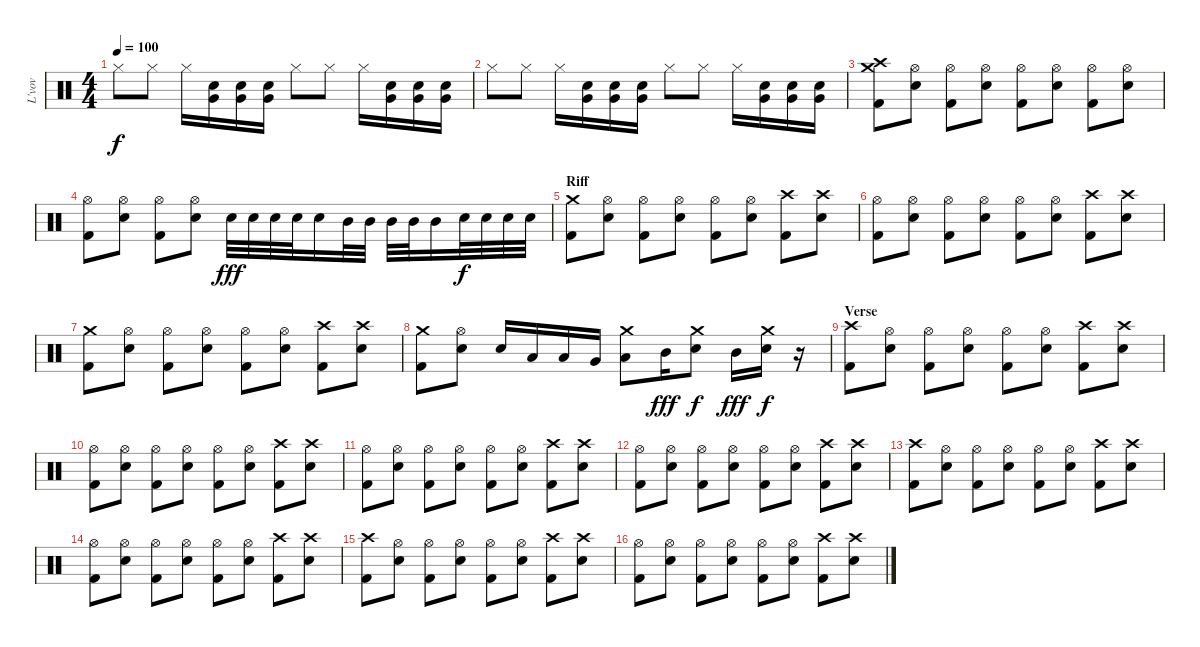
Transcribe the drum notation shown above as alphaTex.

\track ("L'vov" "L'vov") {instrument percussion}
\staff {score}
\articulation defaults
\ts (4 4)
\tempo 100
\clef neutral
\ks c "Hi-Hat (closed)".8{dy f} "Hi-Hat (closed)".8 "Hi-Hat (closed)".16
("Snare (hit) 2" "Very Low Tom (hit)").16 ("Snare (hit) 2" "Very Low Tom (hit)").16 ("Snare (hit) 2" "Very Low Tom (hit)").16 "Hi-Hat (closed)".8 "Hi-Hat (closed)".8 "Hi-Hat (closed)".16 ("Snare (hit) 2" "Very Low Tom (hit)").16 ("Snare (hit) 2" "Very Low Tom (hit)").16 ("Snare (hit) 2" "Very Low Tom (hit)").16 |
"Hi-Hat (closed)".8 "Hi-Hat (closed)".8 "Hi-Hat (closed)".16 ("Snare (hit) 2" "Very Low Tom (hit)").16 ("Snare (hit) 2" "Very Low Tom (hit)").16 ("Snare (hit) 2" "Very Low Tom (hit)").16 "Hi-Hat (closed)".8 "Hi-Hat (closed)".8 "Hi-Hat (closed)".16 ("Snare (hit) 2" "Very Low Tom (hit)").16 ("Snare (hit) 2" "Very Low Tom (hit)").16 ("Snare (hit) 2" "Very Low Tom (hit)").16 |
("Kick (hit) 2" "Crash high (hit)" "Crash medium (hit)").8 ("Snare (hit) 2" "Hi-Hat (open)").8 ("Kick (hit) 2" "Hi-Hat (open)").8 ("Snare (hit) 2" "Hi-Hat (open)").8 ("Kick (hit) 2" "Hi-Hat (open)").8 ("Snare (hit) 2" "Hi-Hat (open)").8 ("Kick (hit) 2" "Hi-Hat (open)").8 ("Snare (hit) 2" "Hi-Hat (open)").8 |
("Kick (hit) 2" "Hi-Hat (open)").8 ("Snare (hit) 2" "Hi-Hat (open)").8 ("Kick (hit) 2" "Hi-Hat (open)").8 ("Snare (hit) 2" "Hi-Hat (open)").8 "Electric Snare (hit)".32{dy fff} "Electric Snare (hit)".32 "Electric Snare (hit)".32 "Electric Snare (hit)".32 "Electric Snare (hit)".16 "Mid Tom (hit)".32 "Mid Tom (hit)".32 "Mid Tom (hit)".32 "Mid Tom (hit)".32 "Mid Tom (hit)".16 "Snare (hit) 2".32{dy f} "Snare (hit) 2".32 "Snare (hit) 2".32 "Snare (hit) 2".32 |
\section ("" "Riff")
("Kick (hit) 2" "Crash medium (hit)").8 ("Snare (hit) 2" "Hi-Hat (open)").8 ("Kick (hit) 2" "Hi-Hat (open)").8 ("Snare (hit) 2" "Hi-Hat (open)").8 ("Kick (hit) 2" "Hi-Hat (open)").8 ("Snare (hit) 2" "Hi-Hat (open)").8 ("Kick (hit) 2" "Crash high (hit)").8 ("Snare (hit) 2" "Crash high (hit)").8 |
("Kick (hit) 2" "Hi-Hat (open)").8 ("Snare (hit) 2" "Hi-Hat (open)").8 ("Kick (hit) 2" "Hi-Hat (open)").8 ("Snare (hit) 2" "Hi-Hat (open)").8 ("Kick (hit) 2" "Hi-Hat (open)").8 ("Snare (hit) 2" "Hi-Hat (open)").8 ("Kick (hit) 2" "Crash high (hit)").8 ("Snare (hit) 2" "Crash high (hit)").8 |
("Kick (hit) 2" "Crash medium (hit)").8 ("Snare (hit) 2" "Hi-Hat (open)").8 ("Kick (hit) 2" "Hi-Hat (open)").8 ("Snare (hit) 2" "Hi-Hat (open)").8 ("Kick (hit) 2" "Hi-Hat (open)").8 ("Snare (hit) 2" "Hi-Hat (open)").8 ("Kick (hit) 2" "Crash high (hit)").8 ("Snare (hit) 2" "Crash high (hit)").8 |
("Kick (hit) 2" "Crash medium (hit)").8 ("Snare (hit) 2" "Hi-Hat (open)").8 "Snare (hit) 2".16 "Low Tom (hit)".16 "Low Tom (hit)".16 "Very Low Tom (hit)".16 ("Low Floor Tom (hit)" "Crash medium (hit)").8 "Mid Tom (hit)".16{dy fff} ("Snare (hit) 2" "Crash medium (hit)").8{dy f} "Mid Tom (hit)".16{dy fff} ("Snare (hit) 2" "Crash medium (hit)").16{dy f} r.16 |
\section ("" "Verse")
("Kick (hit) 2" "Crash high (hit)").8 ("Snare (hit) 2" "Hi-Hat (open)").8 ("Kick (hit) 2" "Hi-Hat (open)").8 ("Snare (hit) 2" "Hi-Hat (open)").8 ("Kick (hit) 2" "Hi-Hat (open)").8 ("Snare (hit) 2" "Hi-Hat (open)").8 ("Kick (hit) 2" "Crash high (hit)").8 ("Snare (hit) 2" "Crash high (hit)").8 |
("Kick (hit) 2" "Hi-Hat (open)").8 ("Snare (hit) 2" "Hi-Hat (open)").8 ("Kick (hit) 2" "Hi-Hat (open)").8 ("Snare (hit) 2" "Hi-Hat (open)").8 ("Kick (hit) 2" "Hi-Hat (open)").8 ("Snare (hit) 2" "Hi-Hat (open)").8 ("Kick (hit) 2" "Crash high (hit)").8 ("Snare (hit) 2" "Crash high (hit)").8 |
("Kick (hit) 2" "Hi-Hat (open)").8 ("Snare (hit) 2" "Hi-Hat (open)").8 ("Kick (hit) 2" "Hi-Hat (open)").8 ("Snare (hit) 2" "Hi-Hat (open)").8 ("Kick (hit) 2" "Hi-Hat (open)").8 ("Snare (hit) 2" "Hi-Hat (open)").8 ("Kick (hit) 2" "Crash high (hit)").8 ("Snare (hit) 2" "Crash high (hit)").8 |
("Kick (hit) 2" "Hi-Hat (open)").8 ("Snare (hit) 2" "Hi-Hat (open)").8 ("Kick (hit) 2" "Hi-Hat (open)").8 ("Snare (hit) 2" "Hi-Hat (open)").8 ("Kick (hit) 2" "Hi-Hat (open)").8 ("Snare (hit) 2" "Hi-Hat (open)").8 ("Kick (hit) 2" "Crash high (hit)").8 ("Snare (hit) 2" "Crash high (hit)").8 |
("Kick (hit) 2" "Crash high (hit)").8 ("Snare (hit) 2" "Hi-Hat (open)").8 ("Kick (hit) 2" "Hi-Hat (open)").8 ("Snare (hit) 2" "Hi-Hat (open)").8 ("Kick (hit) 2" "Hi-Hat (open)").8 ("Snare (hit) 2" "Hi-Hat (open)").8 ("Kick (hit) 2" "Crash high (hit)").8 ("Snare (hit) 2" "Crash high (hit)").8 |
("Kick (hit) 2" "Hi-Hat (open)").8 ("Snare (hit) 2" "Hi-Hat (open)").8 ("Kick (hit) 2" "Hi-Hat (open)").8 ("Snare (hit) 2" "Hi-Hat (open)").8 ("Kick (hit) 2" "Hi-Hat (open)").8 ("Snare (hit) 2" "Hi-Hat (open)").8 ("Kick (hit) 2" "Crash high (hit)").8 ("Snare (hit) 2" "Crash high (hit)").8 |
("Kick (hit) 2" "Crash high (hit)").8 ("Snare (hit) 2" "Hi-Hat (open)").8 ("Kick (hit) 2" "Hi-Hat (open)").8 ("Snare (hit) 2" "Hi-Hat (open)").8 ("Kick (hit) 2" "Hi-Hat (open)").8 ("Snare (hit) 2" "Hi-Hat (open)").8 ("Kick (hit) 2" "Crash high (hit)").8 ("Snare (hit) 2" "Crash high (hit)").8 |
("Kick (hit) 2" "Hi-Hat (open)").8 ("Snare (hit) 2" "Hi-Hat (open)").8 ("Kick (hit) 2" "Hi-Hat (open)").8 ("Snare (hit) 2" "Hi-Hat (open)").8 ("Kick (hit) 2" "Hi-Hat (open)").8 ("Snare (hit) 2" "Hi-Hat (open)").8 ("Kick (hit) 2" "Crash high (hit)").8 ("Snare (hit) 2" "Crash high (hit)").8
